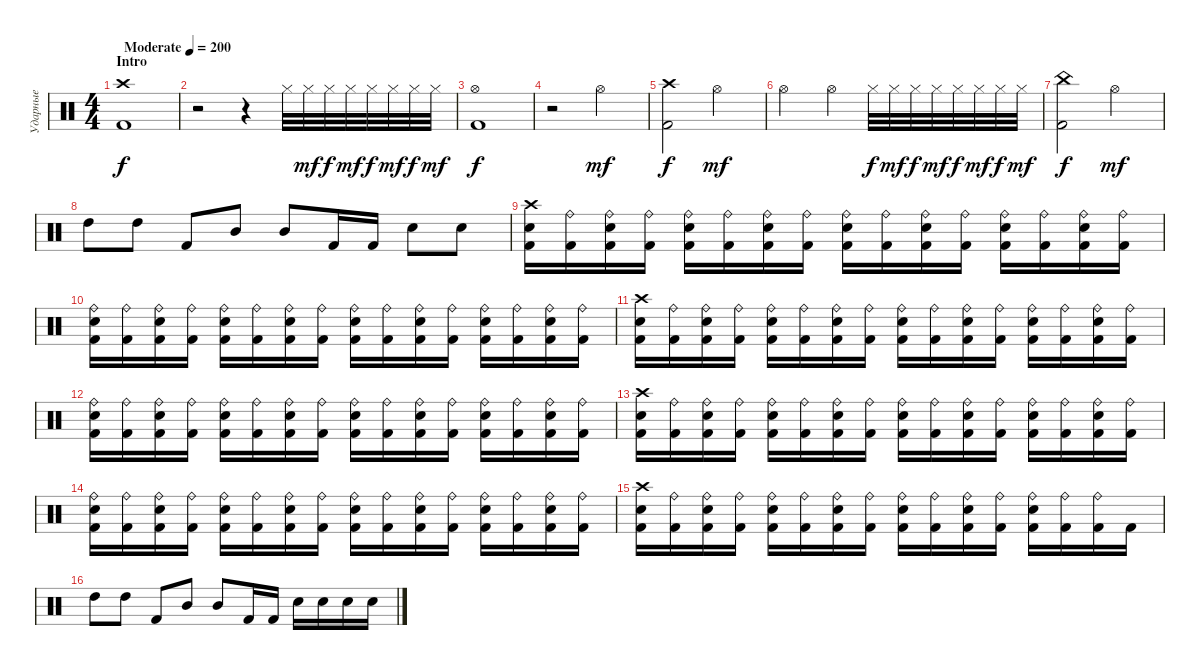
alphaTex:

\track ("Ударные" "Ударные") {instrument percussion}
\staff {score}
\articulation defaults
\ts (4 4)
\section ("" "Intro")
\tempo (200 "Moderate")
\clef neutral
\ks c
("Crash high (hit)" "Kick (hit) 2").1{dy f} |
r.2 r.4 "Hi-Hat (closed)".32 "Hi-Hat (closed)".32{dy mf} "Hi-Hat (closed)".32{dy f} "Hi-Hat (closed)".32{dy mf} "Hi-Hat (closed)".32{dy f} "Hi-Hat (closed)".32{dy mf} "Hi-Hat (closed)".32{dy f} "Hi-Hat (closed)".32{dy mf} |
("Hi-Hat (open)" "Kick (hit) 2").1{dy f} |
r.2 "Hi-Hat (open)".2{dy mf} |
("Crash high (hit)" "Kick (hit) 2").2{dy f} "Hi-Hat (open)".2{dy mf} |
"Hi-Hat (open)".2 "Hi-Hat (open)".4 "Hi-Hat (closed)".32{dy f} "Hi-Hat (closed)".32{dy mf} "Hi-Hat (closed)".32{dy f} "Hi-Hat (closed)".32{dy mf} "Hi-Hat (closed)".32{dy f} "Hi-Hat (closed)".32{dy mf} "Hi-Hat (closed)".32{dy f} "Hi-Hat (closed)".32{dy mf} |
("China (hit)" "Kick (hit) 2").2{dy f} "Hi-Hat (open)".2{dy mf} |
"High Tom (hit)".8 "High Tom (hit)".8 "Kick (hit) 2".8 "Mid Tom (hit)".8 "Mid Tom (hit)".8 "Kick (hit) 2".16 "Kick (hit) 2".16 "Snare (hit) 2".8 "Snare (hit) 2".8 |
("Crash high (hit)" "Snare (hit) 2" "Kick (hit) 2").16 ("Ride (bell)" "Kick (hit) 2").16 ("Ride (bell)" "Snare (hit) 2" "Kick (hit) 2").16 ("Ride (bell)" "Kick (hit) 2").16 ("Ride (bell)" "Snare (hit) 2" "Kick (hit) 2").16 ("Ride (bell)" "Kick (hit) 2").16 ("Ride (bell)" "Snare (hit) 2" "Kick (hit) 2").16 ("Ride (bell)" "Kick (hit) 2").16 ("Ride (bell)" "Snare (hit) 2" "Kick (hit) 2").16 ("Ride (bell)" "Kick (hit) 2").16 ("Ride (bell)" "Snare (hit) 2" "Kick (hit) 2").16 ("Ride (bell)" "Kick (hit) 2").16 ("Ride (bell)" "Snare (hit) 2" "Kick (hit) 2").16 ("Ride (bell)" "Kick (hit) 2").16 ("Ride (bell)" "Snare (hit) 2" "Kick (hit) 2").16 ("Ride (bell)" "Kick (hit) 2").16 |
("Ride (bell)" "Snare (hit) 2" "Kick (hit) 2").16 ("Ride (bell)" "Kick (hit) 2").16 ("Ride (bell)" "Snare (hit) 2" "Kick (hit) 2").16 ("Ride (bell)" "Kick (hit) 2").16 ("Ride (bell)" "Snare (hit) 2" "Kick (hit) 2").16 ("Ride (bell)" "Kick (hit) 2").16 ("Ride (bell)" "Snare (hit) 2" "Kick (hit) 2").16 ("Ride (bell)" "Kick (hit) 2").16 ("Ride (bell)" "Snare (hit) 2" "Kick (hit) 2").16 ("Ride (bell)" "Kick (hit) 2").16 ("Ride (bell)" "Snare (hit) 2" "Kick (hit) 2").16 ("Ride (bell)" "Kick (hit) 2").16 ("Ride (bell)" "Snare (hit) 2" "Kick (hit) 2").16 ("Ride (bell)" "Kick (hit) 2").16 ("Ride (bell)" "Snare (hit) 2" "Kick (hit) 2").16 ("Ride (bell)" "Kick (hit) 2").16 |
("Crash high (hit)" "Snare (hit) 2" "Kick (hit) 2").16 ("Ride (bell)" "Kick (hit) 2").16 ("Ride (bell)" "Snare (hit) 2" "Kick (hit) 2").16 ("Ride (bell)" "Kick (hit) 2").16 ("Ride (bell)" "Snare (hit) 2" "Kick (hit) 2").16 ("Ride (bell)" "Kick (hit) 2").16 ("Ride (bell)" "Snare (hit) 2" "Kick (hit) 2").16 ("Ride (bell)" "Kick (hit) 2").16 ("Ride (bell)" "Snare (hit) 2" "Kick (hit) 2").16 ("Ride (bell)" "Kick (hit) 2").16 ("Ride (bell)" "Snare (hit) 2" "Kick (hit) 2").16 ("Ride (bell)" "Kick (hit) 2").16 ("Ride (bell)" "Snare (hit) 2" "Kick (hit) 2").16 ("Ride (bell)" "Kick (hit) 2").16 ("Ride (bell)" "Snare (hit) 2" "Kick (hit) 2").16 ("Ride (bell)" "Kick (hit) 2").16 |
("Ride (bell)" "Snare (hit) 2" "Kick (hit) 2").16 ("Ride (bell)" "Kick (hit) 2").16 ("Ride (bell)" "Snare (hit) 2" "Kick (hit) 2").16 ("Ride (bell)" "Kick (hit) 2").16 ("Ride (bell)" "Snare (hit) 2" "Kick (hit) 2").16 ("Ride (bell)" "Kick (hit) 2").16 ("Ride (bell)" "Snare (hit) 2" "Kick (hit) 2").16 ("Ride (bell)" "Kick (hit) 2").16 ("Ride (bell)" "Snare (hit) 2" "Kick (hit) 2").16 ("Ride (bell)" "Kick (hit) 2").16 ("Ride (bell)" "Snare (hit) 2" "Kick (hit) 2").16 ("Ride (bell)" "Kick (hit) 2").16 ("Ride (bell)" "Snare (hit) 2" "Kick (hit) 2").16 ("Ride (bell)" "Kick (hit) 2").16 ("Ride (bell)" "Snare (hit) 2" "Kick (hit) 2").16 ("Ride (bell)" "Kick (hit) 2").16 |
("Crash high (hit)" "Snare (hit) 2" "Kick (hit) 2").16 ("Ride (bell)" "Kick (hit) 2").16 ("Ride (bell)" "Snare (hit) 2" "Kick (hit) 2").16 ("Ride (bell)" "Kick (hit) 2").16 ("Ride (bell)" "Snare (hit) 2" "Kick (hit) 2").16 ("Ride (bell)" "Kick (hit) 2").16 ("Ride (bell)" "Snare (hit) 2" "Kick (hit) 2").16 ("Ride (bell)" "Kick (hit) 2").16 ("Ride (bell)" "Snare (hit) 2" "Kick (hit) 2").16 ("Ride (bell)" "Kick (hit) 2").16 ("Ride (bell)" "Snare (hit) 2" "Kick (hit) 2").16 ("Ride (bell)" "Kick (hit) 2").16 ("Ride (bell)" "Snare (hit) 2" "Kick (hit) 2").16 ("Ride (bell)" "Kick (hit) 2").16 ("Ride (bell)" "Snare (hit) 2" "Kick (hit) 2").16 ("Ride (bell)" "Kick (hit) 2").16 |
("Ride (bell)" "Snare (hit) 2" "Kick (hit) 2").16 ("Ride (bell)" "Kick (hit) 2").16 ("Ride (bell)" "Snare (hit) 2" "Kick (hit) 2").16 ("Ride (bell)" "Kick (hit) 2").16 ("Ride (bell)" "Snare (hit) 2" "Kick (hit) 2").16 ("Ride (bell)" "Kick (hit) 2").16 ("Ride (bell)" "Snare (hit) 2" "Kick (hit) 2").16 ("Ride (bell)" "Kick (hit) 2").16 ("Ride (bell)" "Snare (hit) 2" "Kick (hit) 2").16 ("Ride (bell)" "Kick (hit) 2").16 ("Ride (bell)" "Snare (hit) 2" "Kick (hit) 2").16 ("Ride (bell)" "Kick (hit) 2").16 ("Ride (bell)" "Snare (hit) 2" "Kick (hit) 2").16 ("Ride (bell)" "Kick (hit) 2").16 ("Ride (bell)" "Snare (hit) 2" "Kick (hit) 2").16 ("Ride (bell)" "Kick (hit) 2").16 |
("Crash high (hit)" "Snare (hit) 2" "Kick (hit) 2").16 ("Ride (bell)" "Kick (hit) 2").16 ("Ride (bell)" "Snare (hit) 2" "Kick (hit) 2").16 ("Ride (bell)" "Kick (hit) 2").16 ("Ride (bell)" "Snare (hit) 2" "Kick (hit) 2").16 ("Ride (bell)" "Kick (hit) 2").16 ("Ride (bell)" "Snare (hit) 2" "Kick (hit) 2").16 ("Ride (bell)" "Kick (hit) 2").16 ("Ride (bell)" "Snare (hit) 2" "Kick (hit) 2").16 ("Ride (bell)" "Kick (hit) 2").16 ("Ride (bell)" "Snare (hit) 2" "Kick (hit) 2").16 ("Ride (bell)" "Kick (hit) 2").16 ("Ride (bell)" "Snare (hit) 2" "Kick (hit) 2").16 ("Ride (bell)" "Kick (hit) 2").16 ("Ride (bell)" "Kick (hit) 2").16 "Kick (hit) 2".16 |
"High Tom (hit)".8 "High Tom (hit)".8 "Kick (hit) 2".8 "Mid Tom (hit)".8 "Mid Tom (hit)".8 "Kick (hit) 2".16 "Kick (hit) 2".16 "Snare (hit) 2".16 "Snare (hit) 2".16 "Snare (hit) 2".16 "Snare (hit) 2".16
